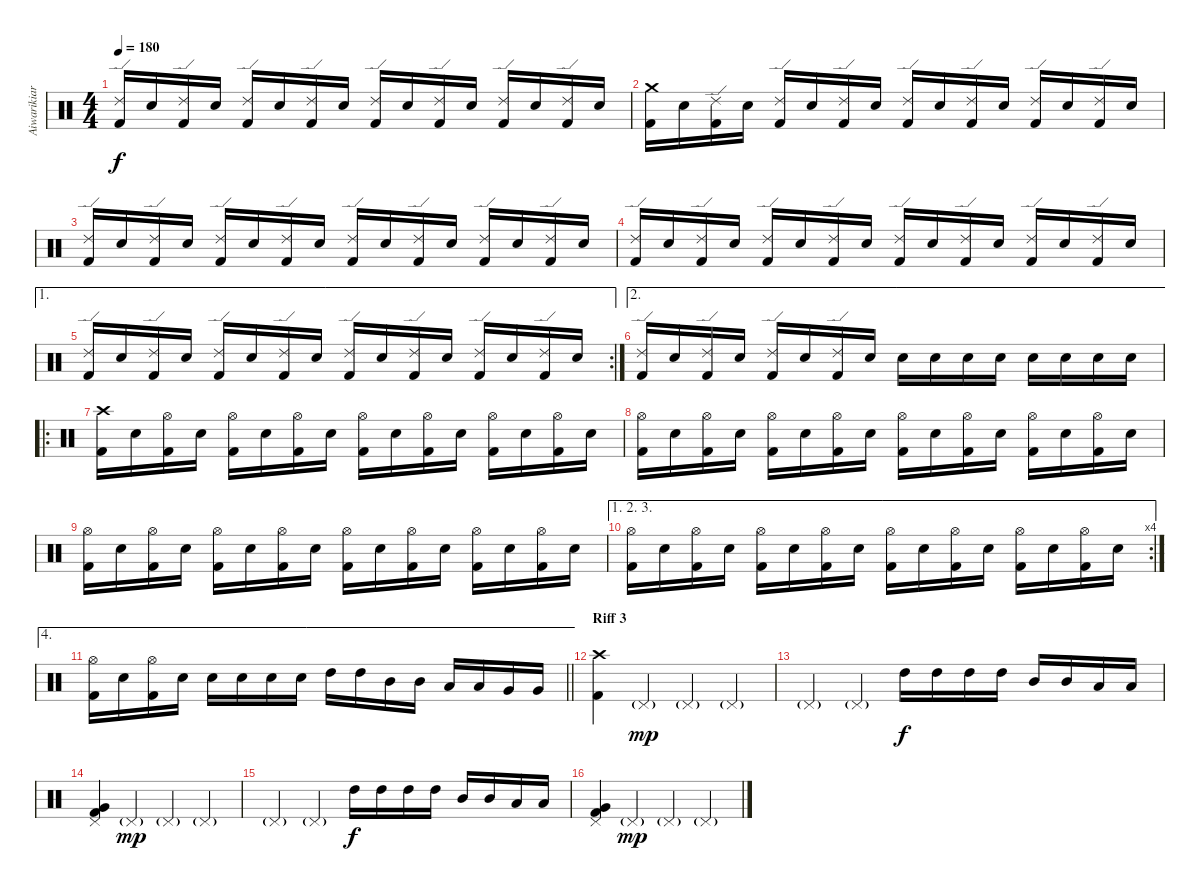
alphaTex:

\track ("Aiwarikiar" "Aiwarikiar") {instrument percussion}
\staff {score}
\articulation defaults
\ts (4 4)
\tempo 180
\clef neutral
\ks c
("Ride (edge) 2" "Kick (hit) 2").16{dy f} "Electric Snare (hit)".16 ("Ride (edge) 2" "Kick (hit) 2").16 "Electric Snare (hit)".16 ("Ride (edge) 2" "Kick (hit) 2").16 "Electric Snare (hit)".16 ("Ride (edge) 2" "Kick (hit) 2").16 "Electric Snare (hit)".16 ("Ride (edge) 2" "Kick (hit) 2").16 "Electric Snare (hit)".16 ("Ride (edge) 2" "Kick (hit) 2").16 "Electric Snare (hit)".16 ("Ride (edge) 2" "Kick (hit) 2").16 "Electric Snare (hit)".16 ("Ride (edge) 2" "Kick (hit) 2").16 "Electric Snare (hit)".16 |
("Crash medium (hit)" "Kick (hit) 2").16 "Electric Snare (hit)".16 ("Ride (edge) 2" "Kick (hit) 2").16 "Electric Snare (hit)".16 ("Ride (edge) 2" "Kick (hit) 2").16 "Electric Snare (hit)".16 ("Ride (edge) 2" "Kick (hit) 2").16 "Electric Snare (hit)".16 ("Ride (edge) 2" "Kick (hit) 2").16 "Electric Snare (hit)".16 ("Ride (edge) 2" "Kick (hit) 2").16 "Electric Snare (hit)".16 ("Ride (edge) 2" "Kick (hit) 2").16 "Electric Snare (hit)".16 ("Ride (edge) 2" "Kick (hit) 2").16 "Electric Snare (hit)".16 |
("Ride (edge) 2" "Kick (hit) 2").16 "Electric Snare (hit)".16 ("Ride (edge) 2" "Kick (hit) 2").16 "Electric Snare (hit)".16 ("Ride (edge) 2" "Kick (hit) 2").16 "Electric Snare (hit)".16 ("Ride (edge) 2" "Kick (hit) 2").16 "Electric Snare (hit)".16 ("Ride (edge) 2" "Kick (hit) 2").16 "Electric Snare (hit)".16 ("Ride (edge) 2" "Kick (hit) 2").16 "Electric Snare (hit)".16 ("Ride (edge) 2" "Kick (hit) 2").16 "Electric Snare (hit)".16 ("Ride (edge) 2" "Kick (hit) 2").16 "Electric Snare (hit)".16 |
("Ride (edge) 2" "Kick (hit) 2").16 "Electric Snare (hit)".16 ("Ride (edge) 2" "Kick (hit) 2").16 "Electric Snare (hit)".16 ("Ride (edge) 2" "Kick (hit) 2").16 "Electric Snare (hit)".16 ("Ride (edge) 2" "Kick (hit) 2").16 "Electric Snare (hit)".16 ("Ride (edge) 2" "Kick (hit) 2").16 "Electric Snare (hit)".16 ("Ride (edge) 2" "Kick (hit) 2").16 "Electric Snare (hit)".16 ("Ride (edge) 2" "Kick (hit) 2").16 "Electric Snare (hit)".16 ("Ride (edge) 2" "Kick (hit) 2").16 "Electric Snare (hit)".16 |
\ae 1
\rc 2
("Ride (edge) 2" "Kick (hit) 2").16 "Electric Snare (hit)".16 ("Ride (edge) 2" "Kick (hit) 2").16 "Electric Snare (hit)".16 ("Ride (edge) 2" "Kick (hit) 2").16 "Electric Snare (hit)".16 ("Ride (edge) 2" "Kick (hit) 2").16 "Electric Snare (hit)".16 ("Ride (edge) 2" "Kick (hit) 2").16 "Electric Snare (hit)".16 ("Ride (edge) 2" "Kick (hit) 2").16 "Electric Snare (hit)".16 ("Ride (edge) 2" "Kick (hit) 2").16 "Electric Snare (hit)".16 ("Ride (edge) 2" "Kick (hit) 2").16 "Electric Snare (hit)".16 |
\ae 2
("Ride (edge) 2" "Kick (hit) 2").16 "Electric Snare (hit)".16 ("Ride (edge) 2" "Kick (hit) 2").16 "Electric Snare (hit)".16 ("Ride (edge) 2" "Kick (hit) 2").16 "Electric Snare (hit)".16 ("Ride (edge) 2" "Kick (hit) 2").16 "Electric Snare (hit)".16 "Electric Snare (hit)".16 "Electric Snare (hit)".16 "Electric Snare (hit)".16 "Electric Snare (hit)".16 "Electric Snare (hit)".16 "Electric Snare (hit)".16 "Electric Snare (hit)".16 "Electric Snare (hit)".16 |
\ro
("Crash high (hit)" "Kick (hit) 2").16 "Electric Snare (hit)".16 ("Hi-Hat (open)" "Kick (hit) 2").16 "Electric Snare (hit)".16 ("Hi-Hat (open)" "Kick (hit) 2").16 "Electric Snare (hit)".16 ("Hi-Hat (open)" "Kick (hit) 2").16 "Electric Snare (hit)".16 ("Hi-Hat (open)" "Kick (hit) 2").16 "Electric Snare (hit)".16 ("Hi-Hat (open)" "Kick (hit) 2").16 "Electric Snare (hit)".16 ("Hi-Hat (open)" "Kick (hit) 2").16 "Electric Snare (hit)".16 ("Hi-Hat (open)" "Kick (hit) 2").16 "Electric Snare (hit)".16 |
("Hi-Hat (open)" "Kick (hit) 2").16 "Electric Snare (hit)".16 ("Hi-Hat (open)" "Kick (hit) 2").16 "Electric Snare (hit)".16 ("Hi-Hat (open)" "Kick (hit) 2").16 "Electric Snare (hit)".16 ("Hi-Hat (open)" "Kick (hit) 2").16 "Electric Snare (hit)".16 ("Hi-Hat (open)" "Kick (hit) 2").16 "Electric Snare (hit)".16 ("Hi-Hat (open)" "Kick (hit) 2").16 "Electric Snare (hit)".16 ("Hi-Hat (open)" "Kick (hit) 2").16 "Electric Snare (hit)".16 ("Hi-Hat (open)" "Kick (hit) 2").16 "Electric Snare (hit)".16 |
("Hi-Hat (open)" "Kick (hit) 2").16 "Electric Snare (hit)".16 ("Hi-Hat (open)" "Kick (hit) 2").16 "Electric Snare (hit)".16 ("Hi-Hat (open)" "Kick (hit) 2").16 "Electric Snare (hit)".16 ("Hi-Hat (open)" "Kick (hit) 2").16 "Electric Snare (hit)".16 ("Hi-Hat (open)" "Kick (hit) 2").16 "Electric Snare (hit)".16 ("Hi-Hat (open)" "Kick (hit) 2").16 "Electric Snare (hit)".16 ("Hi-Hat (open)" "Kick (hit) 2").16 "Electric Snare (hit)".16 ("Hi-Hat (open)" "Kick (hit) 2").16 "Electric Snare (hit)".16 |
\ae (1 2 3)
\rc 4
("Hi-Hat (open)" "Kick (hit) 2").16 "Electric Snare (hit)".16 ("Hi-Hat (open)" "Kick (hit) 2").16 "Electric Snare (hit)".16 ("Hi-Hat (open)" "Kick (hit) 2").16 "Electric Snare (hit)".16 ("Hi-Hat (open)" "Kick (hit) 2").16 "Electric Snare (hit)".16 ("Hi-Hat (open)" "Kick (hit) 2").16 "Electric Snare (hit)".16 ("Hi-Hat (open)" "Kick (hit) 2").16 "Electric Snare (hit)".16 ("Hi-Hat (open)" "Kick (hit) 2").16 "Electric Snare (hit)".16 ("Hi-Hat (open)" "Kick (hit) 2").16 "Electric Snare (hit)".16 |
\ae 4
\barLineRight lightlight
("Hi-Hat (open)" "Kick (hit) 2").16 "Electric Snare (hit)".16 ("Hi-Hat (open)" "Kick (hit) 2").16 "Electric Snare (hit)".16 "Electric Snare (hit)".16 "Electric Snare (hit)".16 "Electric Snare (hit)".16 "Electric Snare (hit)".16 "High Tom (hit)".16 "High Tom (hit)".16 "Mid Tom (hit)".16 "Mid Tom (hit)".16 "Low Tom (hit)".16 "Low Tom (hit)".16 "Very Low Tom (hit)".16 "Very Low Tom (hit)".16 |
\section ("" "Riff 3")
("Crash high (hit)" "Kick (hit) 2").4 "Pedal Hi-Hat (hit)"{g}.4{dy mp} "Pedal Hi-Hat (hit)"{g}.4 "Pedal Hi-Hat (hit)"{g}.4 |
"Pedal Hi-Hat (hit)"{g}.4 "Pedal Hi-Hat (hit)"{g}.4 "High Tom (hit)".16{dy f} "High Tom (hit)".16 "High Tom (hit)".16 "High Tom (hit)".16 "Mid Tom (hit)".16 "Mid Tom (hit)".16 "Low Tom (hit)".16 "Low Tom (hit)".16 |
("Pedal Hi-Hat (hit)" "Very Low Tom (hit)" "Kick (hit) 2").4 "Pedal Hi-Hat (hit)"{g}.4{dy mp} "Pedal Hi-Hat (hit)"{g}.4 "Pedal Hi-Hat (hit)"{g}.4 |
"Pedal Hi-Hat (hit)"{g}.4 "Pedal Hi-Hat (hit)"{g}.4 "High Tom (hit)".16{dy f} "High Tom (hit)".16 "High Tom (hit)".16 "High Tom (hit)".16 "Mid Tom (hit)".16 "Mid Tom (hit)".16 "Low Tom (hit)".16 "Low Tom (hit)".16 |
("Pedal Hi-Hat (hit)" "Very Low Tom (hit)" "Kick (hit) 2").4 "Pedal Hi-Hat (hit)"{g}.4{dy mp} "Pedal Hi-Hat (hit)"{g}.4 "Pedal Hi-Hat (hit)"{g}.4
